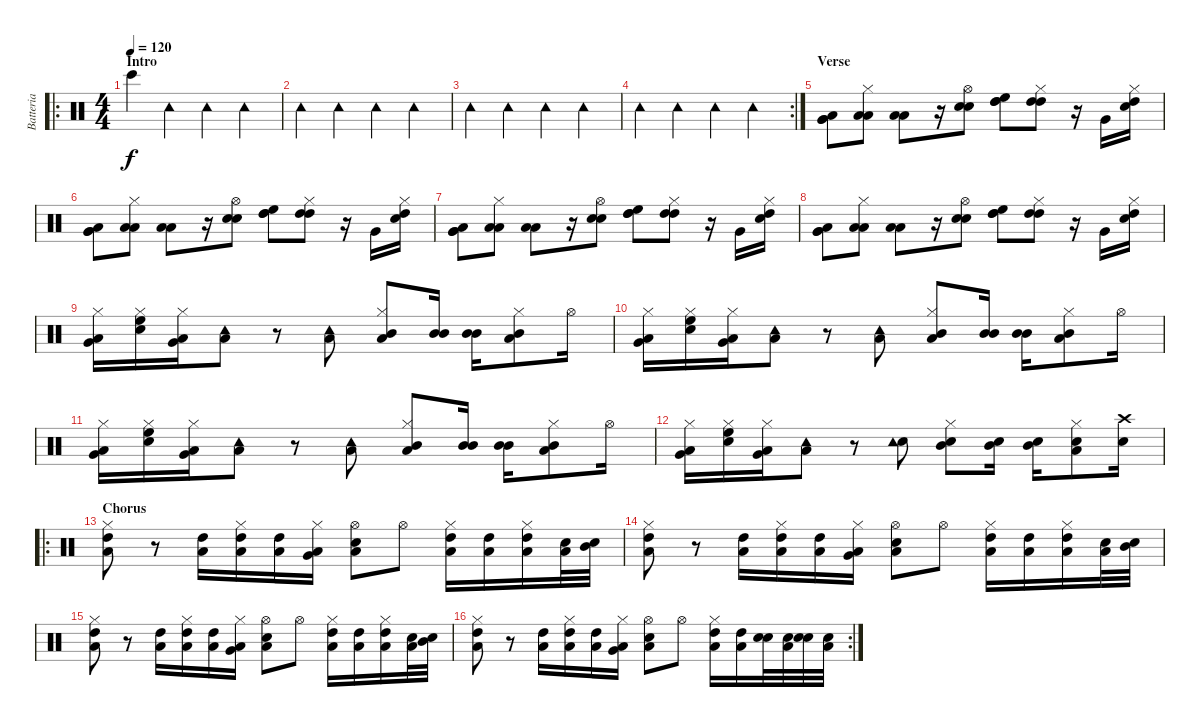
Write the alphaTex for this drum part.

\track ("Batteria" "Batteria") {instrument percussion}
\staff {score}
\articulation defaults
\ro
\ts (4 4)
\section ("" "Intro")
\tempo 120
\clef neutral
\ks c "Bongo High (hit)".4{dy f} "Tambourine (hit)".4 "Tambourine (hit)".4 "Tambourine (hit)".4
|
"Tambourine (hit)".4 "Tambourine (hit)".4 "Tambourine (hit)".4 "Tambourine (hit)".4 |
"Tambourine (hit)".4 "Tambourine (hit)".4 "Tambourine (hit)".4 "Tambourine (hit)".4 |
\rc 2 "Tambourine (hit)".4 "Tambourine (hit)".4 "Tambourine (hit)".4 "Tambourine (hit)".4
|
\section ("" "Verse")
("Very Low Tom (hit)" "Low Tom (hit)" "Very Low Tom (hit)").8 ("Low Tom (hit)" "Hi-Hat (closed)" "Low Tom (hit)").8 ("Low Tom (hit)" "Low Tom (hit)").8 r.16 ("Electric Snare (hit)" "Hi-Hat (open)" "Electric Snare (hit)").8 ("High Tom (hit)" "High Floor Tom (hit)" "High Tom (hit)").8 ("High Tom (hit)" "Hi-Hat (closed)" "High Tom (hit)").8 r.16 "Very Low Tom (hit)".16 ("High Tom (hit)" "Hi-Hat (closed)" "Electric Snare (hit)").16 |
("Very Low Tom (hit)" "Low Tom (hit)" "Very Low Tom (hit)").8 ("Low Tom (hit)" "Hi-Hat (closed)" "Low Tom (hit)").8 ("Low Tom (hit)" "Low Tom (hit)").8 r.16 ("Electric Snare (hit)" "Hi-Hat (open)" "Electric Snare (hit)").8 ("High Tom (hit)" "High Floor Tom (hit)" "High Tom (hit)").8 ("High Tom (hit)" "Hi-Hat (closed)" "High Tom (hit)").8 r.16 "Very Low Tom (hit)".16 ("High Tom (hit)" "Hi-Hat (closed)" "Electric Snare (hit)").16 |
("Very Low Tom (hit)" "Low Tom (hit)" "Very Low Tom (hit)").8 ("Low Tom (hit)" "Hi-Hat (closed)" "Low Tom (hit)").8 ("Low Tom (hit)" "Low Tom (hit)").8 r.16 ("Electric Snare (hit)" "Hi-Hat (open)" "Electric Snare (hit)").8 ("High Tom (hit)" "High Floor Tom (hit)" "High Tom (hit)").8 ("High Tom (hit)" "Hi-Hat (closed)" "High Tom (hit)").8 r.16 "Very Low Tom (hit)".16 ("High Tom (hit)" "Hi-Hat (closed)" "Electric Snare (hit)").16 |
("Very Low Tom (hit)" "Low Tom (hit)" "Very Low Tom (hit)").8 ("Low Tom (hit)" "Hi-Hat (closed)" "Low Tom (hit)").8 ("Low Tom (hit)" "Low Tom (hit)").8 r.16 ("Electric Snare (hit)" "Hi-Hat (open)" "Electric Snare (hit)").8 ("High Tom (hit)" "High Floor Tom (hit)" "High Tom (hit)").8 ("High Tom (hit)" "Hi-Hat (closed)" "High Tom (hit)").8 r.16 "Very Low Tom (hit)".16 ("High Tom (hit)" "Hi-Hat (closed)" "Electric Snare (hit)").16 |
("Very Low Tom (hit)" "Low Tom (hit)" "Hi-Hat (closed)").16 ("Electric Snare (hit)" "High Floor Tom (hit)" "Hi-Hat (closed)").16 ("Very Low Tom (hit)" "Low Tom (hit)" "Hi-Hat (closed)").16 ("Low Tom (hit)" "Tambourine (hit)").8 r.8 ("Low Tom (hit)" "Tambourine (hit)").8 ("Low Tom (hit)" "Mid Tom (hit)" "Hi-Hat (closed)").8 ("Mid Tom (hit)" "Mid Tom (hit)").16 ("Mid Tom (hit)" "Mid Tom (hit)").16 ("Mid Tom (hit)" "Low Tom (hit)" "Hi-Hat (closed)").8 "Hi-Hat (open)".16 |
("Very Low Tom (hit)" "Low Tom (hit)" "Hi-Hat (closed)").16 ("Electric Snare (hit)" "High Floor Tom (hit)" "Hi-Hat (closed)").16 ("Very Low Tom (hit)" "Low Tom (hit)" "Hi-Hat (closed)").16 ("Low Tom (hit)" "Tambourine (hit)").8 r.8 ("Low Tom (hit)" "Tambourine (hit)").8 ("Low Tom (hit)" "Mid Tom (hit)" "Hi-Hat (closed)").8 ("Mid Tom (hit)" "Mid Tom (hit)").16 ("Mid Tom (hit)" "Mid Tom (hit)").16 ("Mid Tom (hit)" "Low Tom (hit)" "Hi-Hat (closed)").8 "Hi-Hat (open)".16 |
("Very Low Tom (hit)" "Low Tom (hit)" "Hi-Hat (closed)").16 ("Electric Snare (hit)" "High Floor Tom (hit)" "Hi-Hat (closed)").16 ("Very Low Tom (hit)" "Low Tom (hit)" "Hi-Hat (closed)").16 ("Low Tom (hit)" "Tambourine (hit)").8 r.8 ("Low Tom (hit)" "Tambourine (hit)").8 ("Low Tom (hit)" "Mid Tom (hit)" "Hi-Hat (closed)").8 ("Mid Tom (hit)" "Mid Tom (hit)").16 ("Mid Tom (hit)" "Mid Tom (hit)").16 ("Mid Tom (hit)" "Low Tom (hit)" "Hi-Hat (closed)").8 "Hi-Hat (open)".16 |
("Very Low Tom (hit)" "Low Tom (hit)" "Hi-Hat (closed)").16 ("Electric Snare (hit)" "High Floor Tom (hit)" "Hi-Hat (closed)").16 ("Very Low Tom (hit)" "Low Tom (hit)" "Hi-Hat (closed)").16 ("Low Tom (hit)" "Tambourine (hit)").8 r.8 ("Electric Snare (hit)" "Tambourine (hit)").8 ("Electric Snare (hit)" "Mid Tom (hit)" "Hi-Hat (closed)").8 ("Electric Snare (hit)" "Mid Tom (hit)").16 ("Electric Snare (hit)" "Mid Tom (hit)").16 ("Electric Snare (hit)" "Low Tom (hit)" "Hi-Hat (closed)").8 ("Electric Snare (hit)" "Crash high (hit)").16 |
\ro
\section ("" "Chorus")
("Low Tom (hit)" "High Tom (hit)" "Hi-Hat (closed)").8{volume 10} r.8 ("Low Tom (hit)" "High Tom (hit)").16 ("Low Tom (hit)" "High Tom (hit)" "Hi-Hat (closed)").16 ("Low Tom (hit)" "High Tom (hit)").16 ("Very Low Tom (hit)" "Low Tom (hit)" "Hi-Hat (closed)").16 ("Low Tom (hit)" "Electric Snare (hit)" "Hi-Hat (open)").8 "Hi-Hat (open)".8 ("Low Tom (hit)" "High Tom (hit)" "Hi-Hat (closed)").16 ("Low Tom (hit)" "High Tom (hit)").16 ("Low Tom (hit)" "High Tom (hit)" "Hi-Hat (closed)").16 ("Electric Snare (hit)" "Low Tom (hit)").32 ("Electric Snare (hit)" "Mid Tom (hit)").32 |
("Low Tom (hit)" "High Tom (hit)" "Hi-Hat (closed)").8 r.8 ("Low Tom (hit)" "High Tom (hit)").16 ("Low Tom (hit)" "High Tom (hit)" "Hi-Hat (closed)").16 ("Low Tom (hit)" "High Tom (hit)").16 ("Very Low Tom (hit)" "Low Tom (hit)" "Hi-Hat (closed)").16 ("Low Tom (hit)" "Electric Snare (hit)" "Hi-Hat (open)").8 "Hi-Hat (open)".8 ("Low Tom (hit)" "High Tom (hit)" "Hi-Hat (closed)").16 ("Low Tom (hit)" "High Tom (hit)").16 ("Low Tom (hit)" "High Tom (hit)" "Hi-Hat (closed)").16 ("Electric Snare (hit)" "Low Tom (hit)").32 ("Electric Snare (hit)" "Mid Tom (hit)").32 |
("Low Tom (hit)" "High Tom (hit)" "Hi-Hat (closed)").8 r.8 ("Low Tom (hit)" "High Tom (hit)").16 ("Low Tom (hit)" "High Tom (hit)" "Hi-Hat (closed)").16 ("Low Tom (hit)" "High Tom (hit)").16 ("Very Low Tom (hit)" "Low Tom (hit)" "Hi-Hat (closed)").16 ("Low Tom (hit)" "Electric Snare (hit)" "Hi-Hat (open)").8 "Hi-Hat (open)".8 ("Low Tom (hit)" "High Tom (hit)" "Hi-Hat (closed)").16 ("Low Tom (hit)" "High Tom (hit)").16 ("Low Tom (hit)" "High Tom (hit)" "Hi-Hat (closed)").16 ("Electric Snare (hit)" "Low Tom (hit)").32 ("Electric Snare (hit)" "Mid Tom (hit)").32 |
\rc 2
("Low Tom (hit)" "High Tom (hit)" "Hi-Hat (closed)").8 r.8 ("Low Tom (hit)" "High Tom (hit)").16 ("Low Tom (hit)" "High Tom (hit)" "Hi-Hat (closed)").16 ("Low Tom (hit)" "High Tom (hit)").16 ("Very Low Tom (hit)" "Low Tom (hit)" "Hi-Hat (closed)").16 ("Low Tom (hit)" "Electric Snare (hit)" "Hi-Hat (open)").8 "Hi-Hat (open)".8 ("Low Tom (hit)" "High Tom (hit)" "Hi-Hat (closed)").16 ("Low Tom (hit)" "High Tom (hit)").16 ("Electric Snare (hit)" "Electric Snare (hit)").32 ("Electric Snare (hit)" "Low Tom (hit)").32 ("Electric Snare (hit)" "Electric Snare (hit)").32 ("Electric Snare (hit)" "Low Tom (hit)").32
